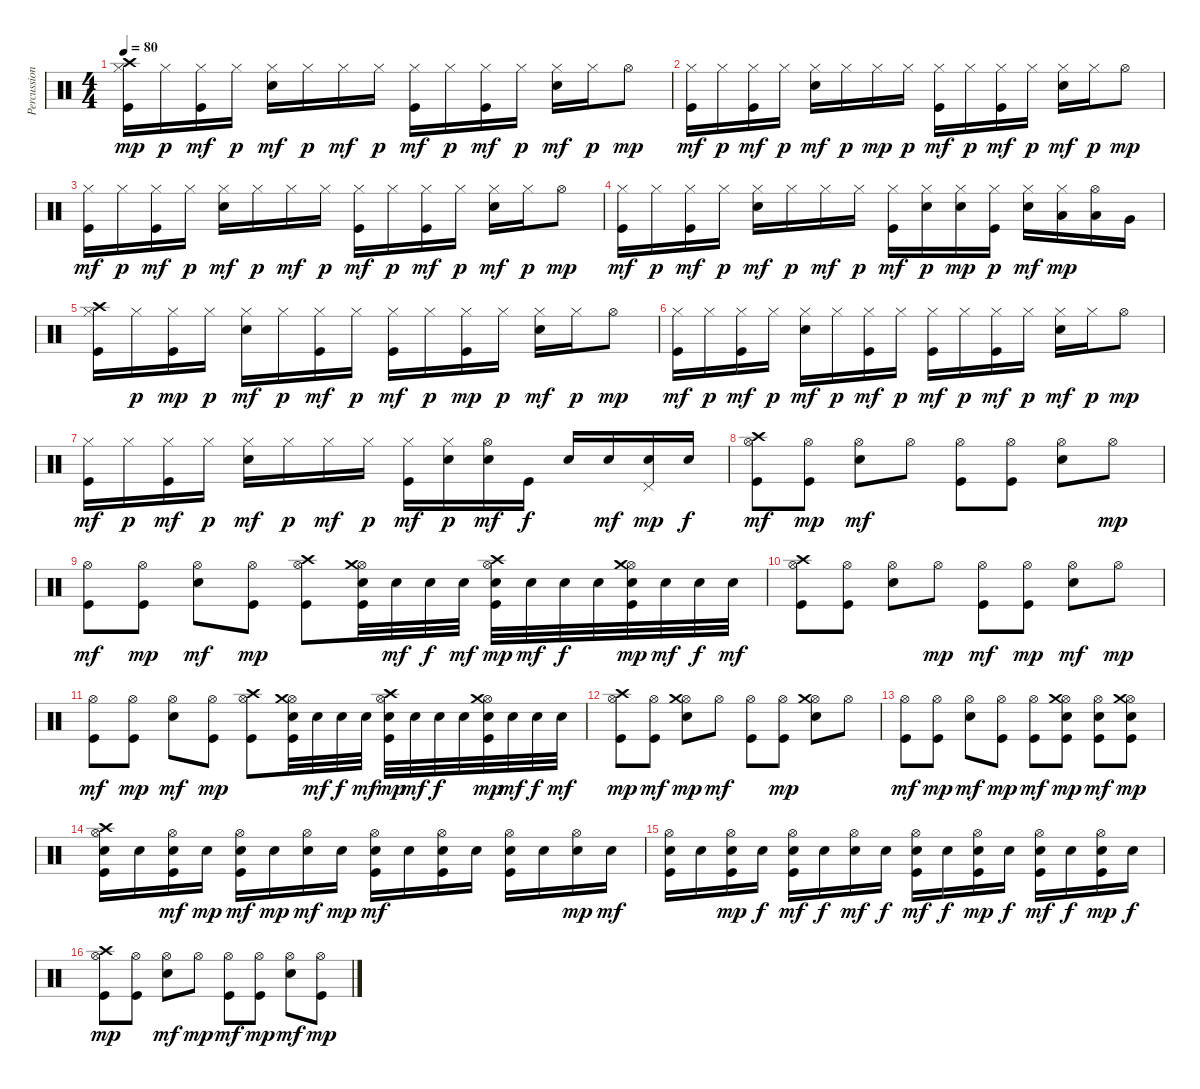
\track ("Percussioni" "Percussion") {instrument percussion}
\staff {score}
\articulation defaults
\ts (4 4)
\tempo 80
\clef neutral
\ks c
("Kick (hit)" "Hi-Hat (closed)" "Crash high (hit)").16{dy mp} "Hi-Hat (closed)".16{dy p} ("Kick (hit)" "Hi-Hat (closed)").16{dy mf} "Hi-Hat (closed)".16{dy p} ("Snare (hit) 2" "Hi-Hat (closed)").16{dy mf} "Hi-Hat (closed)".16{dy p} "Hi-Hat (closed)".16{dy mf} "Hi-Hat (closed)".16{dy p} ("Kick (hit)" "Hi-Hat (closed)").16{dy mf} "Hi-Hat (closed)".16{dy p} ("Kick (hit)" "Hi-Hat (closed)").16{dy mf} "Hi-Hat (closed)".16{dy p} ("Snare (hit) 2" "Hi-Hat (closed)").16{dy mf} "Hi-Hat (closed)".16{dy p} "Hi-Hat (open)".8{dy mp} |
("Kick (hit)" "Hi-Hat (closed)").16{dy mf} "Hi-Hat (closed)".16{dy p} ("Kick (hit)" "Hi-Hat (closed)").16{dy mf} "Hi-Hat (closed)".16{dy p} ("Snare (hit) 2" "Hi-Hat (closed)").16{dy mf} "Hi-Hat (closed)".16{dy p} "Hi-Hat (closed)".16{dy mp} "Hi-Hat (closed)".16{dy p} ("Kick (hit)" "Hi-Hat (closed)").16{dy mf} "Hi-Hat (closed)".16{dy p} ("Kick (hit)" "Hi-Hat (closed)").16{dy mf} "Hi-Hat (closed)".16{dy p} ("Snare (hit) 2" "Hi-Hat (closed)").16{dy mf} "Hi-Hat (closed)".16{dy p} "Hi-Hat (open)".8{dy mp} |
("Kick (hit)" "Hi-Hat (closed)").16{dy mf} "Hi-Hat (closed)".16{dy p} ("Kick (hit)" "Hi-Hat (closed)").16{dy mf} "Hi-Hat (closed)".16{dy p} ("Snare (hit) 2" "Hi-Hat (closed)").16{dy mf} "Hi-Hat (closed)".16{dy p} "Hi-Hat (closed)".16{dy mf} "Hi-Hat (closed)".16{dy p} ("Kick (hit)" "Hi-Hat (closed)").16{dy mf} "Hi-Hat (closed)".16{dy p} ("Kick (hit)" "Hi-Hat (closed)").16{dy mf} "Hi-Hat (closed)".16{dy p} ("Snare (hit) 2" "Hi-Hat (closed)").16{dy mf} "Hi-Hat (closed)".16{dy p} "Hi-Hat (open)".8{dy mp} |
("Kick (hit)" "Hi-Hat (closed)").16{dy mf} "Hi-Hat (closed)".16{dy p} ("Kick (hit)" "Hi-Hat (closed)").16{dy mf} "Hi-Hat (closed)".16{dy p} ("Snare (hit) 2" "Hi-Hat (closed)").16{dy mf} "Hi-Hat (closed)".16{dy p} "Hi-Hat (closed)".16{dy mf} "Hi-Hat (closed)".16{dy p} ("Kick (hit)" "Hi-Hat (closed)").16{dy mf} ("Snare (hit) 2" "Hi-Hat (closed)").16{dy p} ("Snare (hit) 2" "Hi-Hat (closed)").16{dy mp} ("Kick (hit)" "Hi-Hat (closed)").16{dy p} ("Snare (hit) 2" "Hi-Hat (closed)").16{dy mf} ("Hi-Hat (closed)" "Low Tom (hit)").16{dy mp} ("Low Tom (hit)" "Hi-Hat (open)").16 "Very Low Tom (hit)".16 |
("Kick (hit)" "Hi-Hat (closed)" "Crash high (hit)").16 "Hi-Hat (closed)".16{dy p} ("Kick (hit)" "Hi-Hat (closed)").16{dy mp} "Hi-Hat (closed)".16{dy p} ("Snare (hit) 2" "Hi-Hat (closed)").16{dy mf} "Hi-Hat (closed)".16{dy p} ("Kick (hit)" "Hi-Hat (closed)").16{dy mf} "Hi-Hat (closed)".16{dy p} ("Kick (hit)" "Hi-Hat (closed)").16{dy mf} "Hi-Hat (closed)".16{dy p} ("Kick (hit)" "Hi-Hat (closed)").16{dy mp} "Hi-Hat (closed)".16{dy p} ("Snare (hit) 2" "Hi-Hat (closed)").16{dy mf} "Hi-Hat (closed)".16{dy p} "Hi-Hat (open)".8{dy mp} |
("Kick (hit)" "Hi-Hat (closed)").16{dy mf} "Hi-Hat (closed)".16{dy p} ("Kick (hit)" "Hi-Hat (closed)").16{dy mf} "Hi-Hat (closed)".16{dy p} ("Snare (hit) 2" "Hi-Hat (closed)").16{dy mf} "Hi-Hat (closed)".16{dy p} ("Kick (hit)" "Hi-Hat (closed)").16{dy mf} "Hi-Hat (closed)".16{dy p} ("Kick (hit)" "Hi-Hat (closed)").16{dy mf} "Hi-Hat (closed)".16{dy p} ("Kick (hit)" "Hi-Hat (closed)").16{dy mf} "Hi-Hat (closed)".16{dy p} ("Snare (hit) 2" "Hi-Hat (closed)").16{dy mf} "Hi-Hat (closed)".16{dy p} "Hi-Hat (open)".8{dy mp} |
("Kick (hit)" "Hi-Hat (closed)").16{dy mf} "Hi-Hat (closed)".16{dy p} ("Kick (hit)" "Hi-Hat (closed)").16{dy mf} "Hi-Hat (closed)".16{dy p} ("Snare (hit) 2" "Hi-Hat (closed)").16{dy mf} "Hi-Hat (closed)".16{dy p} "Hi-Hat (closed)".16{dy mf} "Hi-Hat (closed)".16{dy p} ("Kick (hit)" "Hi-Hat (closed)").16{dy mf} ("Snare (hit) 2" "Hi-Hat (closed)").16{dy p} ("Snare (hit) 2" "Hi-Hat (open)").16{dy mf} "Kick (hit)".16{dy f} "Snare (hit) 2".16 "Snare (hit) 2".16{dy mf} ("Snare (hit) 2" "Pedal Hi-Hat (hit)").16{dy mp} "Snare (hit) 2".16{dy f} |
("Kick (hit)" "Hi-Hat (open)" "Crash high (hit)").8{dy mf} ("Kick (hit)" "Hi-Hat (open)").8{dy mp} ("Snare (hit) 2" "Hi-Hat (open)").8{dy mf} "Hi-Hat (open)".8 ("Kick (hit)" "Hi-Hat (open)").8 ("Kick (hit)" "Hi-Hat (open)").8 ("Snare (hit) 2" "Hi-Hat (open)").8 "Hi-Hat (open)".8{dy mp} |
("Kick (hit)" "Hi-Hat (open)").8{dy mf} ("Kick (hit)" "Hi-Hat (open)").8{dy mp} ("Snare (hit) 2" "Hi-Hat (open)").8{dy mf} ("Kick (hit)" "Hi-Hat (open)").8{dy mp} ("Kick (hit)" "Hi-Hat (open)" "Crash high (hit)").8 ("Kick (hit)" "Snare (hit) 2" "Hi-Hat (open)" "Crash medium (hit)").32 "Snare (hit) 2".32{dy mf} "Snare (hit) 2".32{dy f} "Snare (hit) 2".32{dy mf} ("Kick (hit)" "Snare (hit) 2" "Hi-Hat (open)" "Crash high (hit)").32{dy mp} "Snare (hit) 2".32{dy mf} "Snare (hit) 2".32{dy f} "Snare (hit) 2".32 ("Kick (hit)" "Snare (hit) 2" "Hi-Hat (open)" "Crash medium (hit)").32{dy mp} "Snare (hit) 2".32{dy mf} "Snare (hit) 2".32{dy f} "Snare (hit) 2".32{dy mf} |
("Kick (hit)" "Hi-Hat (open)" "Crash high (hit)").8 ("Kick (hit)" "Hi-Hat (open)").8 ("Snare (hit) 2" "Hi-Hat (open)").8 "Hi-Hat (open)".8{dy mp} ("Kick (hit)" "Hi-Hat (open)").8{dy mf} ("Kick (hit)" "Hi-Hat (open)").8{dy mp} ("Snare (hit) 2" "Hi-Hat (open)").8{dy mf} "Hi-Hat (open)".8{dy mp} |
("Kick (hit)" "Hi-Hat (open)").8{dy mf} ("Kick (hit)" "Hi-Hat (open)").8{dy mp} ("Snare (hit) 2" "Hi-Hat (open)").8{dy mf} ("Kick (hit)" "Hi-Hat (open)").8{dy mp} ("Kick (hit)" "Hi-Hat (open)" "Crash high (hit)").8 ("Kick (hit)" "Snare (hit) 2" "Hi-Hat (open)" "Crash medium (hit)").32 "Snare (hit) 2".32{dy mf} "Snare (hit) 2".32{dy f} "Snare (hit) 2".32{dy mf} ("Kick (hit)" "Snare (hit) 2" "Hi-Hat (open)" "Crash high (hit)").32{dy mp} "Snare (hit) 2".32{dy mf} "Snare (hit) 2".32{dy f} "Snare (hit) 2".32 ("Kick (hit)" "Snare (hit) 2" "Hi-Hat (open)" "Crash medium (hit)").32{dy mp} "Snare (hit) 2".32{dy mf} "Snare (hit) 2".32{dy f} "Snare (hit) 2".32{dy mf} |
("Kick (hit)" "Hi-Hat (open)" "Crash high (hit)").8{dy mp} ("Kick (hit)" "Hi-Hat (open)").8{dy mf} ("Snare (hit) 2" "Hi-Hat (open)" "Crash medium (hit)").8{dy mp} "Hi-Hat (open)".8{dy mf} ("Kick (hit)" "Hi-Hat (open)").8 ("Kick (hit)" "Hi-Hat (open)").8{dy mp} ("Snare (hit) 2" "Hi-Hat (open)" "Crash medium (hit)").8 "Hi-Hat (open)".8 |
("Kick (hit)" "Hi-Hat (open)").8{dy mf} ("Kick (hit)" "Hi-Hat (open)").8{dy mp} ("Snare (hit) 2" "Hi-Hat (open)").8{dy mf} ("Kick (hit)" "Hi-Hat (open)").8{dy mp} ("Kick (hit)" "Hi-Hat (open)").8{dy mf} ("Kick (hit)" "Snare (hit) 2" "Hi-Hat (open)" "Crash medium (hit)").8{dy mp} ("Kick (hit)" "Snare (hit) 2" "Hi-Hat (open)").8{dy mf} ("Kick (hit)" "Snare (hit) 2" "Hi-Hat (open)" "Crash medium (hit)").8{dy mp} |
("Kick (hit)" "Snare (hit) 2" "Hi-Hat (open)" "Crash high (hit)").16 "Snare (hit) 2".16 ("Kick (hit)" "Snare (hit) 2" "Hi-Hat (open)").16{dy mf} "Snare (hit) 2".16{dy mp} ("Kick (hit)" "Snare (hit) 2" "Hi-Hat (open)").16{dy mf} "Snare (hit) 2".16{dy mp} ("Snare (hit) 2" "Hi-Hat (open)").16{dy mf} "Snare (hit) 2".16{dy mp} ("Kick (hit)" "Snare (hit) 2" "Hi-Hat (open)").16{dy mf} "Snare (hit) 2".16 ("Kick (hit)" "Snare (hit) 2" "Hi-Hat (open)").16 "Snare (hit) 2".16 ("Kick (hit)" "Snare (hit) 2" "Hi-Hat (open)").16 "Snare (hit) 2".16 ("Snare (hit) 2" "Hi-Hat (open)").16{dy mp} "Snare (hit) 2".16{dy mf} |
("Kick (hit)" "Snare (hit) 2" "Hi-Hat (open)").16 "Snare (hit) 2".16 ("Kick (hit)" "Snare (hit) 2" "Hi-Hat (open)").16{dy mp} "Snare (hit) 2".16{dy f} ("Kick (hit)" "Snare (hit) 2" "Hi-Hat (open)").16{dy mf} "Snare (hit) 2".16{dy f} ("Snare (hit) 2" "Hi-Hat (open)").16{dy mf} "Snare (hit) 2".16{dy f} ("Kick (hit)" "Snare (hit) 2" "Hi-Hat (open)").16{dy mf} "Snare (hit) 2".16{dy f} ("Kick (hit)" "Snare (hit) 2" "Hi-Hat (open)").16{dy mp} "Snare (hit) 2".16{dy f} ("Kick (hit)" "Snare (hit) 2" "Hi-Hat (open)").16{dy mf} "Snare (hit) 2".16{dy f} ("Kick (hit)" "Snare (hit) 2" "Hi-Hat (open)").16{dy mp} "Snare (hit) 2".16{dy f} |
("Kick (hit)" "Hi-Hat (open)" "Crash high (hit)").8{dy mp} ("Kick (hit)" "Hi-Hat (open)").8 ("Snare (hit) 2" "Hi-Hat (open)").8{dy mf} "Hi-Hat (open)".8{dy mp} ("Kick (hit)" "Hi-Hat (open)").8{dy mf} ("Kick (hit)" "Hi-Hat (open)").8{dy mp} ("Snare (hit) 2" "Hi-Hat (open)").8{dy mf} ("Kick (hit)" "Hi-Hat (open)").8{dy mp}
